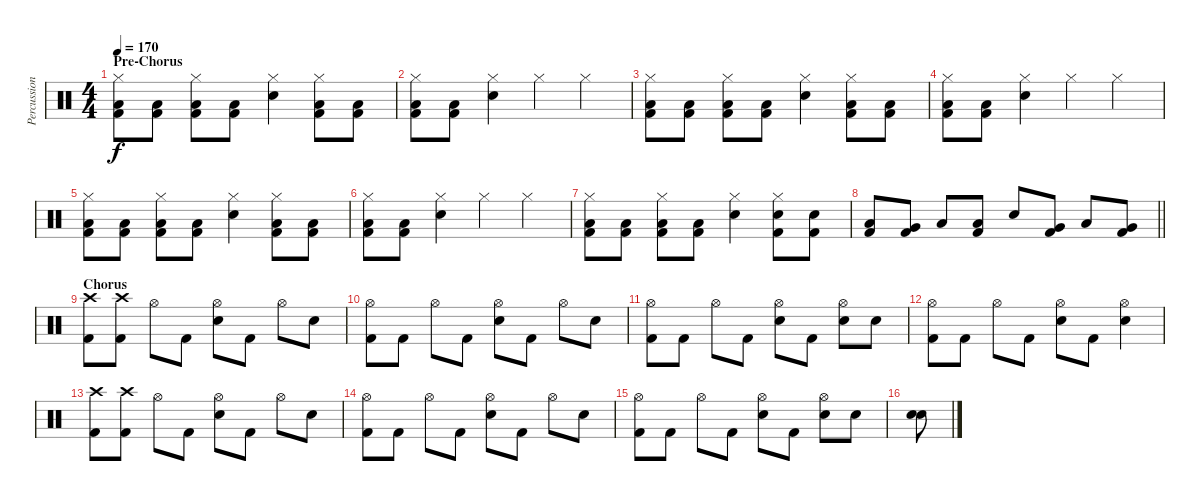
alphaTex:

\track ("Percussion" "Percussion") {instrument percussion}
\staff {score}
\articulation defaults
\ts (4 4)
\section ("" "Pre-Chorus")
\tempo 170
\clef neutral
\ks c
("Hi-Hat (closed)" "Low Floor Tom (hit)" "Kick (hit) 2").8{dy f} ("Low Floor Tom (hit)" "Kick (hit) 2").8 ("Hi-Hat (closed)" "Low Floor Tom (hit)" "Kick (hit) 2").8 ("Low Floor Tom (hit)" "Kick (hit) 2").8 ("Hi-Hat (closed)" "Electric Snare (hit)").4 ("Hi-Hat (closed)" "Low Floor Tom (hit)" "Kick (hit) 2").8 ("Low Floor Tom (hit)" "Kick (hit) 2").8 |
("Hi-Hat (closed)" "Low Floor Tom (hit)" "Kick (hit) 2").8 ("Low Floor Tom (hit)" "Kick (hit) 2").8 ("Hi-Hat (closed)" "Electric Snare (hit)").4 "Hi-Hat (closed)".4 "Hi-Hat (closed)".4 |
("Hi-Hat (closed)" "Low Floor Tom (hit)" "Kick (hit) 2").8 ("Low Floor Tom (hit)" "Kick (hit) 2").8 ("Hi-Hat (closed)" "Low Floor Tom (hit)" "Kick (hit) 2").8 ("Low Floor Tom (hit)" "Kick (hit) 2").8 ("Hi-Hat (closed)" "Electric Snare (hit)").4 ("Hi-Hat (closed)" "Low Floor Tom (hit)" "Kick (hit) 2").8 ("Low Floor Tom (hit)" "Kick (hit) 2").8 |
("Hi-Hat (closed)" "Low Floor Tom (hit)" "Kick (hit) 2").8 ("Low Floor Tom (hit)" "Kick (hit) 2").8 ("Hi-Hat (closed)" "Electric Snare (hit)").4 "Hi-Hat (closed)".4 "Hi-Hat (closed)".4 |
("Hi-Hat (closed)" "Low Floor Tom (hit)" "Kick (hit) 2").8 ("Low Floor Tom (hit)" "Kick (hit) 2").8 ("Hi-Hat (closed)" "Low Floor Tom (hit)" "Kick (hit) 2").8 ("Low Floor Tom (hit)" "Kick (hit) 2").8 ("Hi-Hat (closed)" "Electric Snare (hit)").4 ("Hi-Hat (closed)" "Low Floor Tom (hit)" "Kick (hit) 2").8 ("Low Floor Tom (hit)" "Kick (hit) 2").8 |
("Hi-Hat (closed)" "Low Floor Tom (hit)" "Kick (hit) 2").8 ("Low Floor Tom (hit)" "Kick (hit) 2").8 ("Hi-Hat (closed)" "Electric Snare (hit)").4 "Hi-Hat (closed)".4 "Hi-Hat (closed)".4 |
("Hi-Hat (closed)" "Low Floor Tom (hit)" "Kick (hit) 2").8 ("Low Floor Tom (hit)" "Kick (hit) 2").8 ("Hi-Hat (closed)" "Low Floor Tom (hit)" "Kick (hit) 2").8 ("Low Floor Tom (hit)" "Kick (hit) 2").8 ("Hi-Hat (closed)" "Electric Snare (hit)").4 ("Hi-Hat (closed)" "Electric Snare (hit)" "Kick (hit) 2").8 ("Electric Snare (hit)" "Kick (hit) 2").8 |
\barLineRight lightlight
("Low Tom (hit)" "Kick (hit) 2").8 ("Very Low Tom (hit)" "Kick (hit) 2").8 "Low Floor Tom (hit)".8 ("Low Floor Tom (hit)" "Kick (hit) 2").8 "Electric Snare (hit)".8 ("Very Low Tom (hit)" "Kick (hit) 2").8 "Low Floor Tom (hit)".8 ("Very Low Tom (hit)" "Kick (hit) 2").8 |
\section ("" "Chorus")
("Crash high (hit)" "Kick (hit) 2").8 ("Crash high (hit)" "Kick (hit) 2").8 "Hi-Hat (open)".8 "Kick (hit) 2".8 ("Hi-Hat (open)" "Electric Snare (hit)").8 "Kick (hit) 2".8 "Hi-Hat (open)".8 "Electric Snare (hit)".8 |
("Hi-Hat (open)" "Kick (hit) 2").8 "Kick (hit) 2".8 "Hi-Hat (open)".8 "Kick (hit) 2".8 ("Hi-Hat (open)" "Electric Snare (hit)").8 "Kick (hit) 2".8 "Hi-Hat (open)".8 "Electric Snare (hit)".8 |
("Hi-Hat (open)" "Kick (hit) 2").8 "Kick (hit) 2".8 "Hi-Hat (open)".8 "Kick (hit) 2".8 ("Hi-Hat (open)" "Electric Snare (hit)").8 "Kick (hit) 2".8 ("Hi-Hat (open)" "Electric Snare (hit)").8 "Electric Snare (hit)".8 |
("Hi-Hat (open)" "Kick (hit) 2").8 "Kick (hit) 2".8 "Hi-Hat (open)".8 "Kick (hit) 2".8 ("Hi-Hat (open)" "Electric Snare (hit)").8 "Kick (hit) 2".8 ("Hi-Hat (open)" "Electric Snare (hit)").4 |
("Crash high (hit)" "Kick (hit) 2").8 ("Crash high (hit)" "Kick (hit) 2").8 "Hi-Hat (open)".8 "Kick (hit) 2".8 ("Hi-Hat (open)" "Electric Snare (hit)").8 "Kick (hit) 2".8 "Hi-Hat (open)".8 "Electric Snare (hit)".8 |
("Hi-Hat (open)" "Kick (hit) 2").8 "Kick (hit) 2".8 "Hi-Hat (open)".8 "Kick (hit) 2".8 ("Hi-Hat (open)" "Electric Snare (hit)").8 "Kick (hit) 2".8 "Hi-Hat (open)".8 "Electric Snare (hit)".8 |
("Hi-Hat (open)" "Kick (hit) 2").8 "Kick (hit) 2".8 "Hi-Hat (open)".8 "Kick (hit) 2".8 ("Hi-Hat (open)" "Electric Snare (hit)").8 "Kick (hit) 2".8 ("Hi-Hat (open)" "Electric Snare (hit)").8 "Electric Snare (hit)".8 |
("Electric Snare (hit)" "Electric Snare (hit)").8
